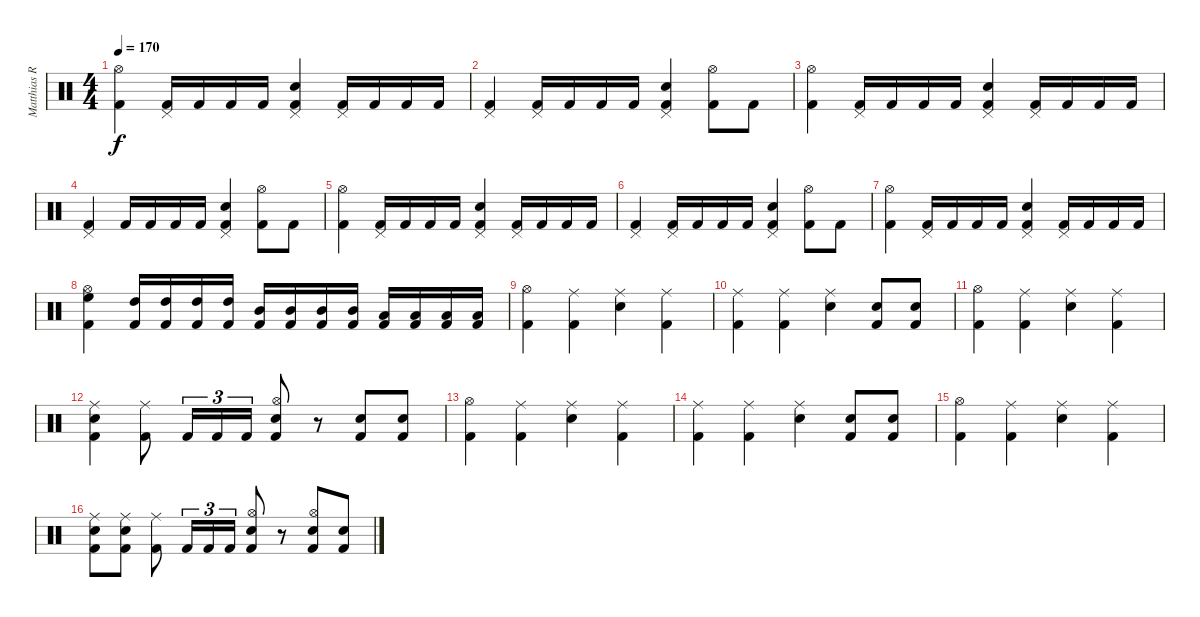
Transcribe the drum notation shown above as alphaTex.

\track ("Matthias R." "Matthias R") {instrument percussion}
\staff {score}
\articulation defaults
\ts (4 4)
\tempo 170
\clef neutral
\ks c
("Kick (hit) 2" "Hi-Hat (open)").4{dy f} ("Kick (hit) 2" "Pedal Hi-Hat (hit)").16 "Kick (hit) 2".16 "Kick (hit) 2".16 "Kick (hit) 2".16 ("Kick (hit) 2" "Snare (hit) 2" "Pedal Hi-Hat (hit)").4 ("Kick (hit) 2" "Pedal Hi-Hat (hit)").16 "Kick (hit) 2".16 "Kick (hit) 2".16 "Kick (hit) 2".16 |
("Kick (hit) 2" "Pedal Hi-Hat (hit)").4 ("Kick (hit) 2" "Pedal Hi-Hat (hit)").16 "Kick (hit) 2".16 "Kick (hit) 2".16 "Kick (hit) 2".16 ("Kick (hit) 2" "Snare (hit) 2" "Pedal Hi-Hat (hit)").4 ("Kick (hit) 2" "Hi-Hat (open)").8 "Kick (hit) 2".8 |
("Kick (hit) 2" "Hi-Hat (open)").4 ("Kick (hit) 2" "Pedal Hi-Hat (hit)").16 "Kick (hit) 2".16 "Kick (hit) 2".16 "Kick (hit) 2".16 ("Kick (hit) 2" "Snare (hit) 2" "Pedal Hi-Hat (hit)").4 ("Kick (hit) 2" "Pedal Hi-Hat (hit)").16 "Kick (hit) 2".16 "Kick (hit) 2".16 "Kick (hit) 2".16 |
("Kick (hit) 2" "Pedal Hi-Hat (hit)").4 "Kick (hit) 2".16 "Kick (hit) 2".16 "Kick (hit) 2".16 "Kick (hit) 2".16 ("Kick (hit) 2" "Snare (hit) 2" "Pedal Hi-Hat (hit)").4 ("Kick (hit) 2" "Hi-Hat (open)").8 "Kick (hit) 2".8 |
("Kick (hit) 2" "Hi-Hat (open)").4 ("Kick (hit) 2" "Pedal Hi-Hat (hit)").16 "Kick (hit) 2".16 "Kick (hit) 2".16 "Kick (hit) 2".16 ("Kick (hit) 2" "Snare (hit) 2" "Pedal Hi-Hat (hit)").4 ("Kick (hit) 2" "Pedal Hi-Hat (hit)").16 "Kick (hit) 2".16 "Kick (hit) 2".16 "Kick (hit) 2".16 |
("Kick (hit) 2" "Pedal Hi-Hat (hit)").4 ("Kick (hit) 2" "Pedal Hi-Hat (hit)").16 "Kick (hit) 2".16 "Kick (hit) 2".16 "Kick (hit) 2".16 ("Kick (hit) 2" "Snare (hit) 2" "Pedal Hi-Hat (hit)").4 ("Kick (hit) 2" "Hi-Hat (open)").8 "Kick (hit) 2".8 |
("Kick (hit) 2" "Hi-Hat (open)").4 ("Kick (hit) 2" "Pedal Hi-Hat (hit)").16 "Kick (hit) 2".16 "Kick (hit) 2".16 "Kick (hit) 2".16 ("Kick (hit) 2" "Snare (hit) 2" "Pedal Hi-Hat (hit)").4 ("Kick (hit) 2" "Pedal Hi-Hat (hit)").16 "Kick (hit) 2".16 "Kick (hit) 2".16 "Kick (hit) 2".16 |
("High Floor Tom (hit)" "Kick (hit) 2" "Hi-Hat (open)").4 ("High Tom (hit)" "Kick (hit) 2").16 ("High Tom (hit)" "Kick (hit) 2").16 ("High Tom (hit)" "Kick (hit) 2").16 ("High Tom (hit)" "Kick (hit) 2").16 ("Mid Tom (hit)" "Kick (hit) 2").16 ("Mid Tom (hit)" "Kick (hit) 2").16 ("Mid Tom (hit)" "Kick (hit) 2").16 ("Mid Tom (hit)" "Kick (hit) 2").16 ("Low Tom (hit)" "Kick (hit) 2").16 ("Low Tom (hit)" "Kick (hit) 2").16 ("Low Tom (hit)" "Kick (hit) 2").16 ("Low Tom (hit)" "Kick (hit) 2").16 |
("Kick (hit) 2" "Hi-Hat (open)").4 ("Kick (hit) 2" "Ride (middle)").4 ("Snare (hit) 2" "Ride (middle)").4 ("Kick (hit) 2" "Ride (middle)").4 |
("Kick (hit) 2" "Ride (middle)").4 ("Kick (hit) 2" "Ride (middle)").4 ("Snare (hit) 2" "Ride (middle)").4 ("Kick (hit) 2" "Snare (hit) 2").8 ("Kick (hit) 2" "Snare (hit) 2").8 |
("Kick (hit) 2" "Hi-Hat (open)").4 ("Kick (hit) 2" "Ride (middle)").4 ("Snare (hit) 2" "Ride (middle)").4 ("Kick (hit) 2" "Ride (middle)").4 |
("Kick (hit) 2" "Snare (hit) 2" "Ride (middle)").4 ("Kick (hit) 2" "Ride (middle)").8 "Kick (hit) 2".16{tu (3 2)} "Kick (hit) 2".16{tu (3 2)} "Kick (hit) 2".16{tu (3 2)} ("Kick (hit) 2" "Snare (hit) 2" "Hi-Hat (open)").8 r.8 ("Kick (hit) 2" "Snare (hit) 2").8 ("Kick (hit) 2" "Snare (hit) 2").8 |
("Kick (hit) 2" "Hi-Hat (open)").4 ("Kick (hit) 2" "Ride (middle)").4 ("Snare (hit) 2" "Ride (middle)").4 ("Kick (hit) 2" "Ride (middle)").4 |
("Kick (hit) 2" "Ride (middle)").4 ("Kick (hit) 2" "Ride (middle)").4 ("Snare (hit) 2" "Ride (middle)").4 ("Kick (hit) 2" "Snare (hit) 2").8 ("Kick (hit) 2" "Snare (hit) 2").8 |
("Kick (hit) 2" "Hi-Hat (open)").4 ("Kick (hit) 2" "Ride (middle)").4 ("Snare (hit) 2" "Ride (middle)").4 ("Kick (hit) 2" "Ride (middle)").4 |
("Kick (hit) 2" "Snare (hit) 2" "Ride (middle)").8 ("Kick (hit) 2" "Snare (hit) 2" "Ride (middle)").8 ("Kick (hit) 2" "Ride (middle)").8 "Kick (hit) 2".16{tu (3 2)} "Kick (hit) 2".16{tu (3 2)} "Kick (hit) 2".16{tu (3 2)} ("Kick (hit) 2" "Snare (hit) 2" "Hi-Hat (open)").8 r.8 ("Kick (hit) 2" "Snare (hit) 2" "Hi-Hat (open)").8 ("Kick (hit) 2" "Snare (hit) 2").8
